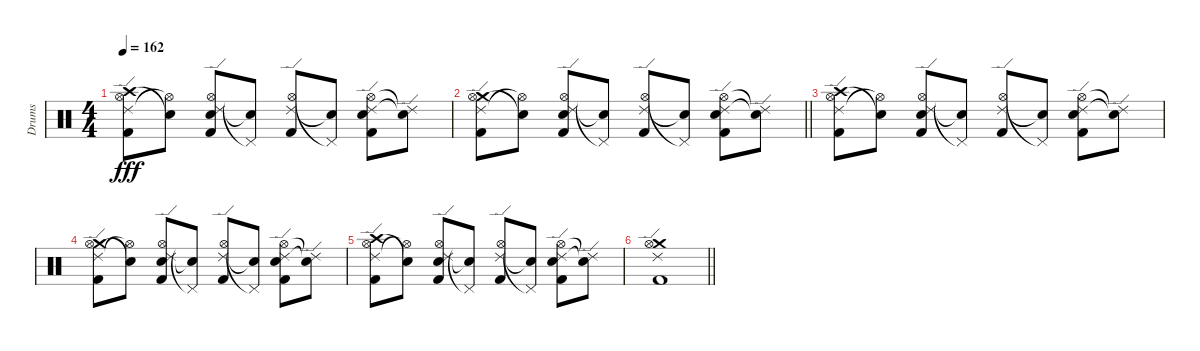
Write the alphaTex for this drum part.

\track ("Drums" "Drums") {instrument percussion}
\staff {score}
\articulation defaults
\ts (4 4)
\tempo 162
\clef neutral
\ks c
("Crash high (hit)" "Ride (edge) 2" "Hi-Hat (open)" "Kick (hit) 2").8{dy fff} ("Snare (hit)"{t} "Hi-Hat (open)"{t}).8 ("Ride (edge) 2" "Hi-Hat (open)" "Snare (hit) 2" "Kick (hit) 2").8 ("Snare (hit)"{t} "Pedal Hi-Hat (hit)"{t}).8 ("Ride (edge) 2" "Hi-Hat (open)" "Kick (hit) 2").8 ("Snare (hit)"{t} "Pedal Hi-Hat (hit)"{t}).8 ("Ride (edge) 2" "Hi-Hat (open)" "Snare (hit) 2" "Kick (hit) 2").8 ("Snare (hit)"{t} "Ride (edge) 2"{t}).8 |
\barLineRight lightlight
("Crash medium (hit)" "Ride (edge) 2" "Hi-Hat (open)" "Kick (hit) 2").8 ("Snare (hit)"{t} "Hi-Hat (open)"{t}).8 ("Ride (edge) 2" "Hi-Hat (open)" "Snare (hit) 2" "Kick (hit) 2").8 ("Snare (hit)"{t} "Pedal Hi-Hat (hit)"{t}).8 ("Ride (edge) 2" "Hi-Hat (open)" "Kick (hit) 2").8 ("Snare (hit)"{t} "Pedal Hi-Hat (hit)"{t}).8 ("Ride (edge) 2" "Hi-Hat (open)" "Snare (hit) 2" "Kick (hit) 2").8 ("Snare (hit)"{t} "Ride (edge) 2"{t}).8 |
("Crash high (hit)" "Ride (edge) 2" "Hi-Hat (open)" "Kick (hit) 2").8 ("Snare (hit)"{t} "Hi-Hat (open)"{t}).8 ("Ride (edge) 2" "Hi-Hat (open)" "Snare (hit) 2" "Kick (hit) 2").8 ("Snare (hit)"{t} "Pedal Hi-Hat (hit)"{t}).8 ("Ride (edge) 2" "Hi-Hat (open)" "Kick (hit) 2").8 ("Snare (hit)"{t} "Pedal Hi-Hat (hit)"{t}).8 ("Ride (edge) 2" "Hi-Hat (open)" "Snare (hit) 2" "Kick (hit) 2").8 ("Snare (hit)"{t} "Ride (edge) 2"{t}).8 |
("Crash medium (hit)" "Ride (edge) 2" "Hi-Hat (open)" "Kick (hit) 2").8 ("Snare (hit)"{t} "Hi-Hat (open)"{t}).8 ("Ride (edge) 2" "Hi-Hat (open)" "Snare (hit) 2" "Kick (hit) 2").8 ("Snare (hit)"{t} "Pedal Hi-Hat (hit)"{t}).8 ("Ride (edge) 2" "Hi-Hat (open)" "Kick (hit) 2").8 ("Snare (hit)"{t} "Pedal Hi-Hat (hit)"{t}).8 ("Ride (edge) 2" "Hi-Hat (open)" "Snare (hit) 2" "Kick (hit) 2").8 ("Snare (hit)"{t} "Ride (edge) 2"{t}).8 |
("Crash high (hit)" "Ride (edge) 2" "Hi-Hat (open)" "Kick (hit) 2").8 ("Snare (hit)"{t} "Hi-Hat (open)"{t}).8 ("Ride (edge) 2" "Hi-Hat (open)" "Snare (hit) 2" "Kick (hit) 2").8 ("Snare (hit)"{t} "Pedal Hi-Hat (hit)"{t}).8 ("Ride (edge) 2" "Hi-Hat (open)" "Kick (hit) 2").8 ("Snare (hit)"{t} "Pedal Hi-Hat (hit)"{t}).8 ("Ride (edge) 2" "Hi-Hat (open)" "Snare (hit) 2" "Kick (hit) 2").8 ("Snare (hit)"{t} "Ride (edge) 2"{t}).8 |
\barLineRight lightlight
("Crash medium (hit)" "Ride (edge) 2" "Hi-Hat (open)" "Kick (hit) 2").1
